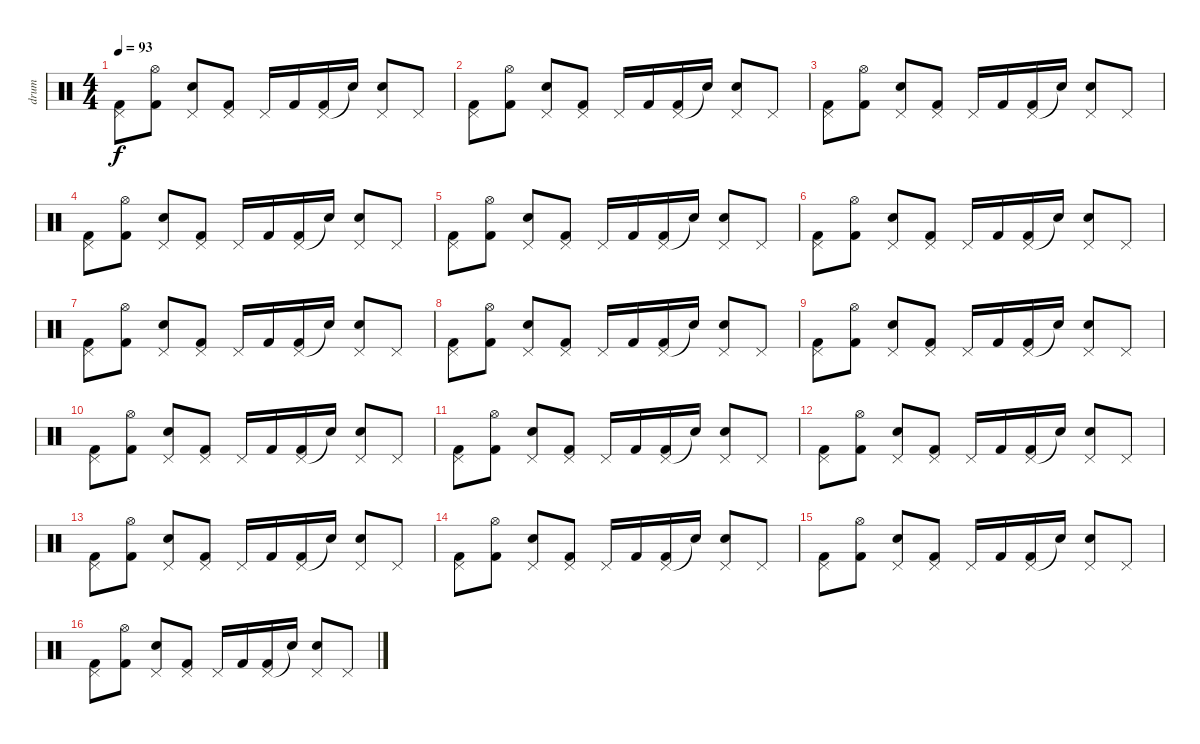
\track ("drum" "drum") {instrument percussion}
\staff {score}
\articulation defaults
\ts (4 4)
\tempo 93
\clef neutral
\ks c
("Pedal Hi-Hat (hit)" "Kick (hit) 2").8{dy f} ("Hi-Hat (open)" "Kick (hit) 2").8 ("Pedal Hi-Hat (hit)" "Snare (hit) 2").8 ("Pedal Hi-Hat (hit)" "Kick (hit) 2").8 "Pedal Hi-Hat (hit)".16 "Kick (hit) 2".16 ("Pedal Hi-Hat (hit)" "Kick (hit) 2").16 "Snare (hit)"{t}.16 ("Pedal Hi-Hat (hit)" "Snare (hit) 2").8 "Pedal Hi-Hat (hit)".8 |
("Pedal Hi-Hat (hit)" "Kick (hit) 2").8 ("Hi-Hat (open)" "Kick (hit) 2").8 ("Pedal Hi-Hat (hit)" "Snare (hit) 2").8 ("Pedal Hi-Hat (hit)" "Kick (hit) 2").8 "Pedal Hi-Hat (hit)".16 "Kick (hit) 2".16 ("Pedal Hi-Hat (hit)" "Kick (hit) 2").16 "Snare (hit)"{t}.16 ("Pedal Hi-Hat (hit)" "Snare (hit) 2").8 "Pedal Hi-Hat (hit)".8 |
("Pedal Hi-Hat (hit)" "Kick (hit) 2").8 ("Hi-Hat (open)" "Kick (hit) 2").8 ("Pedal Hi-Hat (hit)" "Snare (hit) 2").8 ("Pedal Hi-Hat (hit)" "Kick (hit) 2").8 "Pedal Hi-Hat (hit)".16 "Kick (hit) 2".16 ("Pedal Hi-Hat (hit)" "Kick (hit) 2").16 "Snare (hit)"{t}.16 ("Pedal Hi-Hat (hit)" "Snare (hit) 2").8 "Pedal Hi-Hat (hit)".8 |
("Pedal Hi-Hat (hit)" "Kick (hit) 2").8 ("Hi-Hat (open)" "Kick (hit) 2").8 ("Pedal Hi-Hat (hit)" "Snare (hit) 2").8 ("Pedal Hi-Hat (hit)" "Kick (hit) 2").8 "Pedal Hi-Hat (hit)".16 "Kick (hit) 2".16 ("Pedal Hi-Hat (hit)" "Kick (hit) 2").16 "Snare (hit)"{t}.16 ("Pedal Hi-Hat (hit)" "Snare (hit) 2").8 "Pedal Hi-Hat (hit)".8 |
("Pedal Hi-Hat (hit)" "Kick (hit) 2").8 ("Hi-Hat (open)" "Kick (hit) 2").8 ("Pedal Hi-Hat (hit)" "Snare (hit) 2").8 ("Pedal Hi-Hat (hit)" "Kick (hit) 2").8 "Pedal Hi-Hat (hit)".16 "Kick (hit) 2".16 ("Pedal Hi-Hat (hit)" "Kick (hit) 2").16 "Snare (hit)"{t}.16 ("Pedal Hi-Hat (hit)" "Snare (hit) 2").8 "Pedal Hi-Hat (hit)".8 |
("Pedal Hi-Hat (hit)" "Kick (hit) 2").8 ("Hi-Hat (open)" "Kick (hit) 2").8 ("Pedal Hi-Hat (hit)" "Snare (hit) 2").8 ("Pedal Hi-Hat (hit)" "Kick (hit) 2").8 "Pedal Hi-Hat (hit)".16 "Kick (hit) 2".16 ("Pedal Hi-Hat (hit)" "Kick (hit) 2").16 "Snare (hit)"{t}.16 ("Pedal Hi-Hat (hit)" "Snare (hit) 2").8 "Pedal Hi-Hat (hit)".8 |
("Pedal Hi-Hat (hit)" "Kick (hit) 2").8 ("Hi-Hat (open)" "Kick (hit) 2").8 ("Pedal Hi-Hat (hit)" "Snare (hit) 2").8 ("Pedal Hi-Hat (hit)" "Kick (hit) 2").8 "Pedal Hi-Hat (hit)".16 "Kick (hit) 2".16 ("Pedal Hi-Hat (hit)" "Kick (hit) 2").16 "Snare (hit)"{t}.16 ("Pedal Hi-Hat (hit)" "Snare (hit) 2").8 "Pedal Hi-Hat (hit)".8 |
("Pedal Hi-Hat (hit)" "Kick (hit) 2").8 ("Hi-Hat (open)" "Kick (hit) 2").8 ("Pedal Hi-Hat (hit)" "Snare (hit) 2").8 ("Pedal Hi-Hat (hit)" "Kick (hit) 2").8 "Pedal Hi-Hat (hit)".16 "Kick (hit) 2".16 ("Pedal Hi-Hat (hit)" "Kick (hit) 2").16 "Snare (hit)"{t}.16 ("Pedal Hi-Hat (hit)" "Snare (hit) 2").8 "Pedal Hi-Hat (hit)".8 |
("Pedal Hi-Hat (hit)" "Kick (hit) 2").8 ("Hi-Hat (open)" "Kick (hit) 2").8 ("Pedal Hi-Hat (hit)" "Snare (hit) 2").8 ("Pedal Hi-Hat (hit)" "Kick (hit) 2").8 "Pedal Hi-Hat (hit)".16 "Kick (hit) 2".16 ("Pedal Hi-Hat (hit)" "Kick (hit) 2").16 "Snare (hit)"{t}.16 ("Pedal Hi-Hat (hit)" "Snare (hit) 2").8 "Pedal Hi-Hat (hit)".8 |
("Pedal Hi-Hat (hit)" "Kick (hit) 2").8 ("Hi-Hat (open)" "Kick (hit) 2").8 ("Pedal Hi-Hat (hit)" "Snare (hit) 2").8 ("Pedal Hi-Hat (hit)" "Kick (hit) 2").8 "Pedal Hi-Hat (hit)".16 "Kick (hit) 2".16 ("Pedal Hi-Hat (hit)" "Kick (hit) 2").16 "Snare (hit)"{t}.16 ("Pedal Hi-Hat (hit)" "Snare (hit) 2").8 "Pedal Hi-Hat (hit)".8 |
("Pedal Hi-Hat (hit)" "Kick (hit) 2").8 ("Hi-Hat (open)" "Kick (hit) 2").8 ("Pedal Hi-Hat (hit)" "Snare (hit) 2").8 ("Pedal Hi-Hat (hit)" "Kick (hit) 2").8 "Pedal Hi-Hat (hit)".16 "Kick (hit) 2".16 ("Pedal Hi-Hat (hit)" "Kick (hit) 2").16 "Snare (hit)"{t}.16 ("Pedal Hi-Hat (hit)" "Snare (hit) 2").8 "Pedal Hi-Hat (hit)".8 |
("Pedal Hi-Hat (hit)" "Kick (hit) 2").8 ("Hi-Hat (open)" "Kick (hit) 2").8 ("Pedal Hi-Hat (hit)" "Snare (hit) 2").8 ("Pedal Hi-Hat (hit)" "Kick (hit) 2").8 "Pedal Hi-Hat (hit)".16 "Kick (hit) 2".16 ("Pedal Hi-Hat (hit)" "Kick (hit) 2").16 "Snare (hit)"{t}.16 ("Pedal Hi-Hat (hit)" "Snare (hit) 2").8 "Pedal Hi-Hat (hit)".8 |
("Pedal Hi-Hat (hit)" "Kick (hit) 2").8 ("Hi-Hat (open)" "Kick (hit) 2").8 ("Pedal Hi-Hat (hit)" "Snare (hit) 2").8 ("Pedal Hi-Hat (hit)" "Kick (hit) 2").8 "Pedal Hi-Hat (hit)".16 "Kick (hit) 2".16 ("Pedal Hi-Hat (hit)" "Kick (hit) 2").16 "Snare (hit)"{t}.16 ("Pedal Hi-Hat (hit)" "Snare (hit) 2").8 "Pedal Hi-Hat (hit)".8 |
("Pedal Hi-Hat (hit)" "Kick (hit) 2").8 ("Hi-Hat (open)" "Kick (hit) 2").8 ("Pedal Hi-Hat (hit)" "Snare (hit) 2").8 ("Pedal Hi-Hat (hit)" "Kick (hit) 2").8 "Pedal Hi-Hat (hit)".16 "Kick (hit) 2".16 ("Pedal Hi-Hat (hit)" "Kick (hit) 2").16 "Snare (hit)"{t}.16 ("Pedal Hi-Hat (hit)" "Snare (hit) 2").8 "Pedal Hi-Hat (hit)".8 |
("Pedal Hi-Hat (hit)" "Kick (hit) 2").8 ("Hi-Hat (open)" "Kick (hit) 2").8 ("Pedal Hi-Hat (hit)" "Snare (hit) 2").8 ("Pedal Hi-Hat (hit)" "Kick (hit) 2").8 "Pedal Hi-Hat (hit)".16 "Kick (hit) 2".16 ("Pedal Hi-Hat (hit)" "Kick (hit) 2").16 "Snare (hit)"{t}.16 ("Pedal Hi-Hat (hit)" "Snare (hit) 2").8 "Pedal Hi-Hat (hit)".8 |
("Pedal Hi-Hat (hit)" "Kick (hit) 2").8 ("Hi-Hat (open)" "Kick (hit) 2").8 ("Pedal Hi-Hat (hit)" "Snare (hit) 2").8 ("Pedal Hi-Hat (hit)" "Kick (hit) 2").8 "Pedal Hi-Hat (hit)".16 "Kick (hit) 2".16 ("Pedal Hi-Hat (hit)" "Kick (hit) 2").16 "Snare (hit)"{t}.16 ("Pedal Hi-Hat (hit)" "Snare (hit) 2").8 "Pedal Hi-Hat (hit)".8
